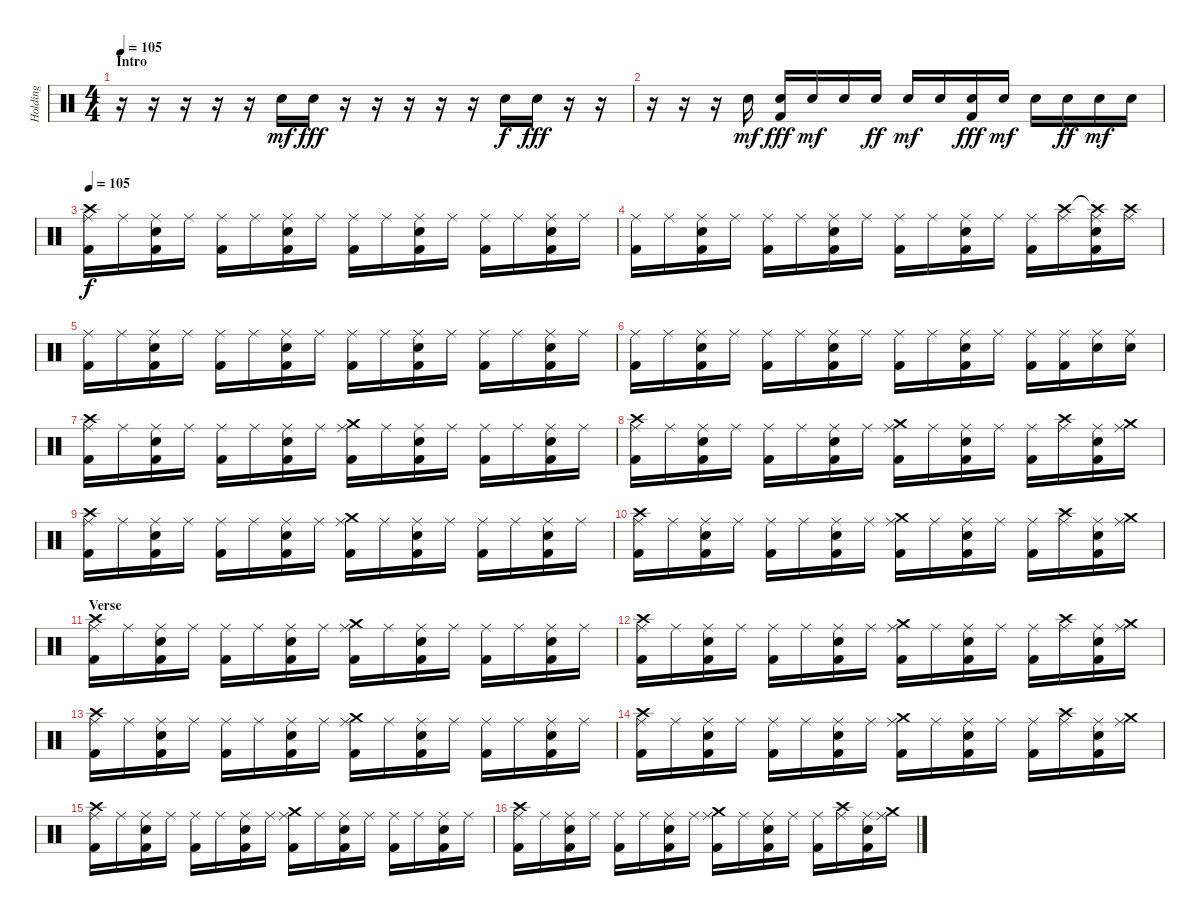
\track ("Holding" "Holding") {instrument percussion}
\staff {score}
\articulation defaults
\ts (4 4)
\section ("" "Intro")
\tempo 105
\tempo 150
\tempo 105
\clef neutral
\ks c
r.16{dy mf} r.16 r.16 r.16 r.16 "Electric Snare (hit)".16 "Electric Snare (hit)".16{dy fff} r.16 r.16 r.16 r.16 r.16 "Electric Snare (hit)".16{dy f} "Electric Snare (hit)".16{dy fff} r.16 r.16 |
r.16 r.16 r.16 "Electric Snare (hit)".16{dy mf} ("Electric Snare (hit)" "Kick (hit) 2").16{dy fff} "Electric Snare (hit)".16{dy mf} "Electric Snare (hit)".16 "Electric Snare (hit)".16{dy ff} "Electric Snare (hit)".16{dy mf} "Electric Snare (hit)".16 ("Electric Snare (hit)" "Kick (hit) 2").16{dy fff} "Electric Snare (hit)".16{dy mf} "Electric Snare (hit)".16 "Electric Snare (hit)".16{dy ff} "Electric Snare (hit)".16{dy mf} "Electric Snare (hit)".16 |
\tempo 105
("Crash high (hit)" "Ride (middle)" "Kick (hit) 2").16{dy f} "Ride (middle)".16 ("Ride (middle)" "Electric Snare (hit)" "Kick (hit) 2").16 "Ride (middle)".16 ("Ride (middle)" "Kick (hit) 2").16 "Ride (middle)".16 ("Ride (middle)" "Electric Snare (hit)" "Kick (hit) 2").16 "Ride (middle)".16 ("Ride (middle)" "Kick (hit) 2").16 "Ride (middle)".16 ("Ride (middle)" "Electric Snare (hit)" "Kick (hit) 2").16 "Ride (middle)".16 ("Ride (middle)" "Kick (hit) 2").16 "Ride (middle)".16 ("Ride (middle)" "Electric Snare (hit)" "Kick (hit) 2").16 "Ride (middle)".16 |
("Ride (middle)" "Kick (hit) 2").16 "Ride (middle)".16 ("Ride (middle)" "Electric Snare (hit)" "Kick (hit) 2").16 "Ride (middle)".16 ("Ride (middle)" "Kick (hit) 2").16 "Ride (middle)".16 ("Ride (middle)" "Electric Snare (hit)" "Kick (hit) 2").16 "Ride (middle)".16 ("Ride (middle)" "Kick (hit) 2").16 "Ride (middle)".16 ("Ride (middle)" "Electric Snare (hit)" "Kick (hit) 2").16 "Ride (middle)".16 ("Ride (middle)" "Kick (hit) 2").16 ("Crash high (hit)" "Ride (middle)").16 ("Crash high (hit)"{t} "Ride (middle)" "Electric Snare (hit)" "Kick (hit) 2").16 ("Crash high (hit)" "Ride (middle)").16 |
("Ride (middle)" "Kick (hit) 2").16 "Ride (middle)".16 ("Ride (middle)" "Electric Snare (hit)" "Kick (hit) 2").16 "Ride (middle)".16 ("Ride (middle)" "Kick (hit) 2").16 "Ride (middle)".16 ("Ride (middle)" "Electric Snare (hit)" "Kick (hit) 2").16 "Ride (middle)".16 ("Ride (middle)" "Kick (hit) 2").16 "Ride (middle)".16 ("Ride (middle)" "Electric Snare (hit)" "Kick (hit) 2").16 "Ride (middle)".16 ("Ride (middle)" "Kick (hit) 2").16 "Ride (middle)".16 ("Ride (middle)" "Electric Snare (hit)" "Kick (hit) 2").16 "Ride (middle)".16 |
("Ride (middle)" "Kick (hit) 2").16 "Ride (middle)".16 ("Ride (middle)" "Electric Snare (hit)" "Kick (hit) 2").16 "Ride (middle)".16 ("Ride (middle)" "Kick (hit) 2").16 "Ride (middle)".16 ("Ride (middle)" "Electric Snare (hit)" "Kick (hit) 2").16 "Ride (middle)".16 ("Ride (middle)" "Kick (hit) 2").16 "Ride (middle)".16 ("Ride (middle)" "Electric Snare (hit)" "Kick (hit) 2").16 "Ride (middle)".16 ("Ride (middle)" "Kick (hit) 2").16 ("Ride (middle)" "Kick (hit) 2").16 ("Ride (middle)" "Electric Snare (hit)").16 ("Ride (middle)" "Electric Snare (hit)").16 |
("Crash high (hit)" "Ride (middle)" "Kick (hit) 2").16 "Ride (middle)".16 ("Ride (middle)" "Electric Snare (hit)" "Kick (hit) 2").16 "Ride (middle)".16 ("Ride (middle)" "Kick (hit) 2").16 "Ride (middle)".16 ("Ride (middle)" "Electric Snare (hit)" "Kick (hit) 2").16 "Ride (middle)".16 ("Crash medium (hit)" "Ride (middle)" "Kick (hit) 2").16 "Ride (middle)".16 ("Ride (middle)" "Electric Snare (hit)" "Kick (hit) 2").16 "Ride (middle)".16 ("Ride (middle)" "Kick (hit) 2").16 "Ride (middle)".16 ("Ride (middle)" "Electric Snare (hit)" "Kick (hit) 2").16 "Ride (middle)".16 |
("Crash high (hit)" "Ride (middle)" "Kick (hit) 2").16 "Ride (middle)".16 ("Ride (middle)" "Electric Snare (hit)" "Kick (hit) 2").16 "Ride (middle)".16 ("Ride (middle)" "Kick (hit) 2").16 "Ride (middle)".16 ("Ride (middle)" "Electric Snare (hit)" "Kick (hit) 2").16 "Ride (middle)".16 ("Crash medium (hit)" "Ride (middle)" "Kick (hit) 2").16 "Ride (middle)".16 ("Ride (middle)" "Electric Snare (hit)" "Kick (hit) 2").16 "Ride (middle)".16 ("Ride (middle)" "Kick (hit) 2").16 ("Crash high (hit)" "Ride (middle)").16 ("Ride (middle)" "Electric Snare (hit)" "Kick (hit) 2").16 ("Crash medium (hit)" "Ride (middle)").16 |
("Crash high (hit)" "Ride (middle)" "Kick (hit) 2").16 "Ride (middle)".16 ("Ride (middle)" "Electric Snare (hit)" "Kick (hit) 2").16 "Ride (middle)".16 ("Ride (middle)" "Kick (hit) 2").16 "Ride (middle)".16 ("Ride (middle)" "Electric Snare (hit)" "Kick (hit) 2").16 "Ride (middle)".16 ("Crash medium (hit)" "Ride (middle)" "Kick (hit) 2").16 "Ride (middle)".16 ("Ride (middle)" "Electric Snare (hit)" "Kick (hit) 2").16 "Ride (middle)".16 ("Ride (middle)" "Kick (hit) 2").16 "Ride (middle)".16 ("Ride (middle)" "Electric Snare (hit)" "Kick (hit) 2").16 "Ride (middle)".16 |
("Crash high (hit)" "Ride (middle)" "Kick (hit) 2").16 "Ride (middle)".16 ("Ride (middle)" "Electric Snare (hit)" "Kick (hit) 2").16 "Ride (middle)".16 ("Ride (middle)" "Kick (hit) 2").16 "Ride (middle)".16 ("Ride (middle)" "Electric Snare (hit)" "Kick (hit) 2").16 "Ride (middle)".16 ("Crash medium (hit)" "Ride (middle)" "Kick (hit) 2").16 "Ride (middle)".16 ("Ride (middle)" "Electric Snare (hit)" "Kick (hit) 2").16 "Ride (middle)".16 ("Ride (middle)" "Kick (hit) 2").16 ("Crash high (hit)" "Ride (middle)").16 ("Ride (middle)" "Electric Snare (hit)" "Kick (hit) 2").16 ("Crash medium (hit)" "Ride (middle)").16 |
\section ("" "Verse")
("Crash high (hit)" "Ride (middle)" "Kick (hit) 2").16 "Ride (middle)".16 ("Ride (middle)" "Electric Snare (hit)" "Kick (hit) 2").16 "Ride (middle)".16 ("Ride (middle)" "Kick (hit) 2").16 "Ride (middle)".16 ("Ride (middle)" "Electric Snare (hit)" "Kick (hit) 2").16 "Ride (middle)".16 ("Crash medium (hit)" "Ride (middle)" "Kick (hit) 2").16 "Ride (middle)".16 ("Ride (middle)" "Electric Snare (hit)" "Kick (hit) 2").16 "Ride (middle)".16 ("Ride (middle)" "Kick (hit) 2").16 "Ride (middle)".16 ("Ride (middle)" "Electric Snare (hit)" "Kick (hit) 2").16 "Ride (middle)".16 |
("Crash high (hit)" "Ride (middle)" "Kick (hit) 2").16 "Ride (middle)".16 ("Ride (middle)" "Electric Snare (hit)" "Kick (hit) 2").16 "Ride (middle)".16 ("Ride (middle)" "Kick (hit) 2").16 "Ride (middle)".16 ("Ride (middle)" "Electric Snare (hit)" "Kick (hit) 2").16 "Ride (middle)".16 ("Crash medium (hit)" "Ride (middle)" "Kick (hit) 2").16 "Ride (middle)".16 ("Ride (middle)" "Electric Snare (hit)" "Kick (hit) 2").16 "Ride (middle)".16 ("Ride (middle)" "Kick (hit) 2").16 ("Crash high (hit)" "Ride (middle)").16 ("Ride (middle)" "Electric Snare (hit)" "Kick (hit) 2").16 ("Crash medium (hit)" "Ride (middle)").16 |
("Crash high (hit)" "Ride (middle)" "Kick (hit) 2").16 "Ride (middle)".16 ("Ride (middle)" "Electric Snare (hit)" "Kick (hit) 2").16 "Ride (middle)".16 ("Ride (middle)" "Kick (hit) 2").16 "Ride (middle)".16 ("Ride (middle)" "Electric Snare (hit)" "Kick (hit) 2").16 "Ride (middle)".16 ("Crash medium (hit)" "Ride (middle)" "Kick (hit) 2").16 "Ride (middle)".16 ("Ride (middle)" "Electric Snare (hit)" "Kick (hit) 2").16 "Ride (middle)".16 ("Ride (middle)" "Kick (hit) 2").16 "Ride (middle)".16 ("Ride (middle)" "Electric Snare (hit)" "Kick (hit) 2").16 "Ride (middle)".16 |
("Crash high (hit)" "Ride (middle)" "Kick (hit) 2").16 "Ride (middle)".16 ("Ride (middle)" "Electric Snare (hit)" "Kick (hit) 2").16 "Ride (middle)".16 ("Ride (middle)" "Kick (hit) 2").16 "Ride (middle)".16 ("Ride (middle)" "Electric Snare (hit)" "Kick (hit) 2").16 "Ride (middle)".16 ("Crash medium (hit)" "Ride (middle)" "Kick (hit) 2").16 "Ride (middle)".16 ("Ride (middle)" "Electric Snare (hit)" "Kick (hit) 2").16 "Ride (middle)".16 ("Ride (middle)" "Kick (hit) 2").16 ("Crash high (hit)" "Ride (middle)").16 ("Ride (middle)" "Electric Snare (hit)" "Kick (hit) 2").16 ("Crash medium (hit)" "Ride (middle)").16 |
("Crash high (hit)" "Ride (middle)" "Kick (hit) 2").16 "Ride (middle)".16 ("Ride (middle)" "Electric Snare (hit)" "Kick (hit) 2").16 "Ride (middle)".16 ("Ride (middle)" "Kick (hit) 2").16 "Ride (middle)".16 ("Ride (middle)" "Electric Snare (hit)" "Kick (hit) 2").16 "Ride (middle)".16 ("Crash medium (hit)" "Ride (middle)" "Kick (hit) 2").16 "Ride (middle)".16 ("Ride (middle)" "Electric Snare (hit)" "Kick (hit) 2").16 "Ride (middle)".16 ("Ride (middle)" "Kick (hit) 2").16 "Ride (middle)".16 ("Ride (middle)" "Electric Snare (hit)" "Kick (hit) 2").16 "Ride (middle)".16 |
("Crash high (hit)" "Ride (middle)" "Kick (hit) 2").16 "Ride (middle)".16 ("Ride (middle)" "Electric Snare (hit)" "Kick (hit) 2").16 "Ride (middle)".16 ("Ride (middle)" "Kick (hit) 2").16 "Ride (middle)".16 ("Ride (middle)" "Electric Snare (hit)" "Kick (hit) 2").16 "Ride (middle)".16 ("Crash medium (hit)" "Ride (middle)" "Kick (hit) 2").16 "Ride (middle)".16 ("Ride (middle)" "Electric Snare (hit)" "Kick (hit) 2").16 "Ride (middle)".16 ("Ride (middle)" "Kick (hit) 2").16 ("Crash high (hit)" "Ride (middle)").16 ("Ride (middle)" "Electric Snare (hit)" "Kick (hit) 2").16 ("Crash medium (hit)" "Ride (middle)").16
